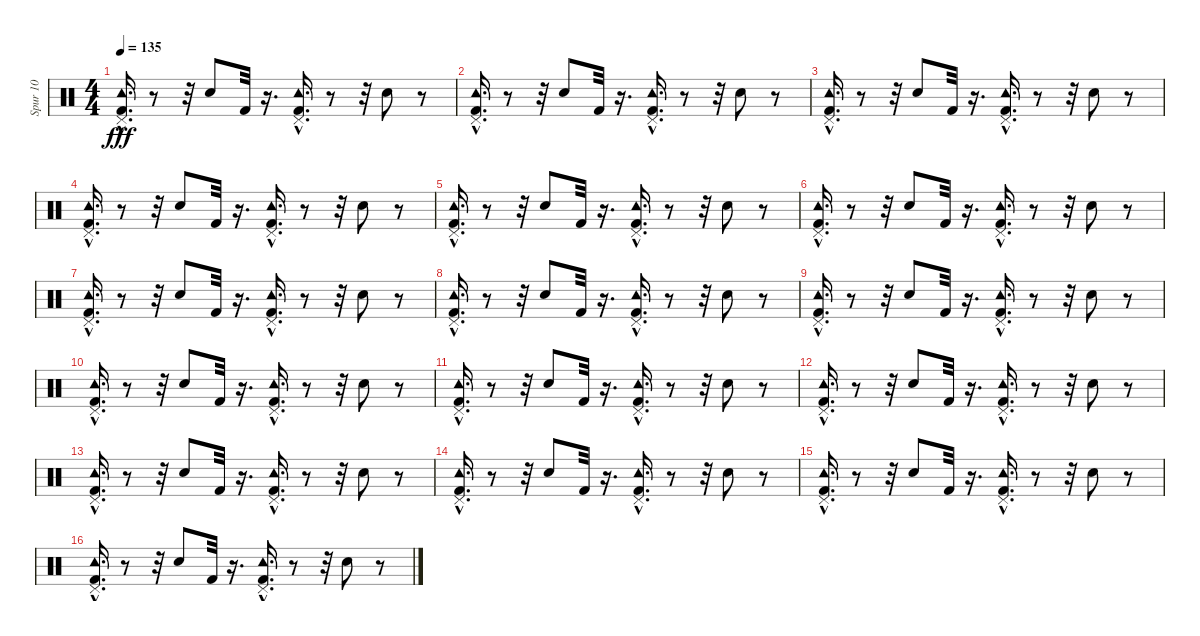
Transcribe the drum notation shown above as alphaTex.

\track ("Spur 10" "Spur 10") {instrument percussion}
\staff {score}
\articulation defaults
\ts (4 4)
\tempo 135
\clef neutral
\ks c
("Kick (hit) 2"{hac} "Pedal Hi-Hat (hit)" "Tambourine (hit)").16{d dy fff} r.8 r.32 "Electric Snare (hit)".8 "Kick (hit) 2".32 r.16{d} ("Tambourine (hit)" "Kick (hit) 2"{hac} "Pedal Hi-Hat (hit)").16{d} r.8 r.32 "Electric Snare (hit)".8 r.8 |
("Pedal Hi-Hat (hit)" "Tambourine (hit)" "Kick (hit) 2"{hac}).16{d} r.8 r.32 "Electric Snare (hit)".8 "Kick (hit) 2".32 r.16{d} ("Tambourine (hit)" "Pedal Hi-Hat (hit)" "Kick (hit) 2"{hac}).16{d} r.8 r.32 "Electric Snare (hit)".8 r.8 |
("Pedal Hi-Hat (hit)" "Kick (hit) 2"{hac} "Tambourine (hit)").16{d} r.8 r.32 "Electric Snare (hit)".8 "Kick (hit) 2".32 r.16{d} ("Pedal Hi-Hat (hit)" "Kick (hit) 2"{hac} "Tambourine (hit)").16{d} r.8 r.32 "Electric Snare (hit)".8 r.8 |
("Tambourine (hit)" "Kick (hit) 2"{hac} "Pedal Hi-Hat (hit)").16{d} r.8 r.32 "Electric Snare (hit)".8 "Kick (hit) 2".32 r.16{d} ("Tambourine (hit)" "Kick (hit) 2"{hac} "Pedal Hi-Hat (hit)").16{d} r.8 r.32 "Electric Snare (hit)".8 r.8 |
("Kick (hit) 2"{hac} "Tambourine (hit)" "Pedal Hi-Hat (hit)").16{d} r.8 r.32 "Electric Snare (hit)".8 "Kick (hit) 2".32 r.16{d} ("Pedal Hi-Hat (hit)" "Tambourine (hit)" "Kick (hit) 2"{hac}).16{d} r.8 r.32 "Electric Snare (hit)".8 r.8 |
("Tambourine (hit)" "Kick (hit) 2"{hac} "Pedal Hi-Hat (hit)").16{d} r.8 r.32 "Electric Snare (hit)".8 "Kick (hit) 2".32 r.16{d} ("Kick (hit) 2"{hac} "Tambourine (hit)" "Pedal Hi-Hat (hit)").16{d} r.8 r.32 "Electric Snare (hit)".8 r.8 |
("Kick (hit) 2"{hac} "Tambourine (hit)" "Pedal Hi-Hat (hit)").16{d} r.8 r.32 "Electric Snare (hit)".8 "Kick (hit) 2".32 r.16{d} ("Tambourine (hit)" "Kick (hit) 2"{hac} "Pedal Hi-Hat (hit)").16{d} r.8 r.32 "Electric Snare (hit)".8 r.8 |
("Pedal Hi-Hat (hit)" "Tambourine (hit)" "Kick (hit) 2"{hac}).16{d} r.8 r.32 "Electric Snare (hit)".8 "Kick (hit) 2".32 r.16{d} ("Tambourine (hit)" "Pedal Hi-Hat (hit)" "Kick (hit) 2"{hac}).16{d} r.8 r.32 "Electric Snare (hit)".8 r.8 |
("Kick (hit) 2"{hac} "Tambourine (hit)" "Pedal Hi-Hat (hit)").16{d} r.8 r.32 "Electric Snare (hit)".8 "Kick (hit) 2".32 r.16{d} ("Pedal Hi-Hat (hit)" "Kick (hit) 2"{hac} "Tambourine (hit)").16{d} r.8 r.32 "Electric Snare (hit)".8 r.8 |
("Kick (hit) 2"{hac} "Tambourine (hit)" "Pedal Hi-Hat (hit)").16{d} r.8 r.32 "Electric Snare (hit)".8 "Kick (hit) 2".32 r.16{d} ("Kick (hit) 2"{hac} "Tambourine (hit)" "Pedal Hi-Hat (hit)").16{d} r.8 r.32 "Electric Snare (hit)".8 r.8 |
("Kick (hit) 2"{hac} "Pedal Hi-Hat (hit)" "Tambourine (hit)").16{d} r.8 r.32 "Electric Snare (hit)".8 "Kick (hit) 2".32 r.16{d} ("Tambourine (hit)" "Kick (hit) 2"{hac} "Pedal Hi-Hat (hit)").16{d} r.8 r.32 "Electric Snare (hit)".8 r.8 |
("Kick (hit) 2"{hac} "Tambourine (hit)" "Pedal Hi-Hat (hit)").16{d} r.8 r.32 "Electric Snare (hit)".8 "Kick (hit) 2".32 r.16{d} ("Tambourine (hit)" "Kick (hit) 2"{hac} "Pedal Hi-Hat (hit)").16{d} r.8 r.32 "Electric Snare (hit)".8 r.8 |
("Tambourine (hit)" "Kick (hit) 2"{hac} "Pedal Hi-Hat (hit)").16{d} r.8 r.32 "Electric Snare (hit)".8 "Kick (hit) 2".32 r.16{d} ("Pedal Hi-Hat (hit)" "Tambourine (hit)" "Kick (hit) 2"{hac}).16{d} r.8 r.32 "Electric Snare (hit)".8 r.8 |
("Kick (hit) 2"{hac} "Pedal Hi-Hat (hit)" "Tambourine (hit)").16{d} r.8 r.32 "Electric Snare (hit)".8 "Kick (hit) 2".32 r.16{d} ("Tambourine (hit)" "Kick (hit) 2"{hac} "Pedal Hi-Hat (hit)").16{d} r.8 r.32 "Electric Snare (hit)".8 r.8 |
("Kick (hit) 2"{hac} "Tambourine (hit)" "Pedal Hi-Hat (hit)").16{d} r.8 r.32 "Electric Snare (hit)".8 "Kick (hit) 2".32 r.16{d} ("Kick (hit) 2"{hac} "Tambourine (hit)" "Pedal Hi-Hat (hit)").16{d} r.8 r.32 "Electric Snare (hit)".8 r.8 |
("Kick (hit) 2"{hac} "Tambourine (hit)" "Pedal Hi-Hat (hit)").16{d} r.8 r.32 "Electric Snare (hit)".8 "Kick (hit) 2".32 r.16{d} ("Pedal Hi-Hat (hit)" "Kick (hit) 2"{hac} "Tambourine (hit)").16{d} r.8 r.32 "Electric Snare (hit)".8 r.8
